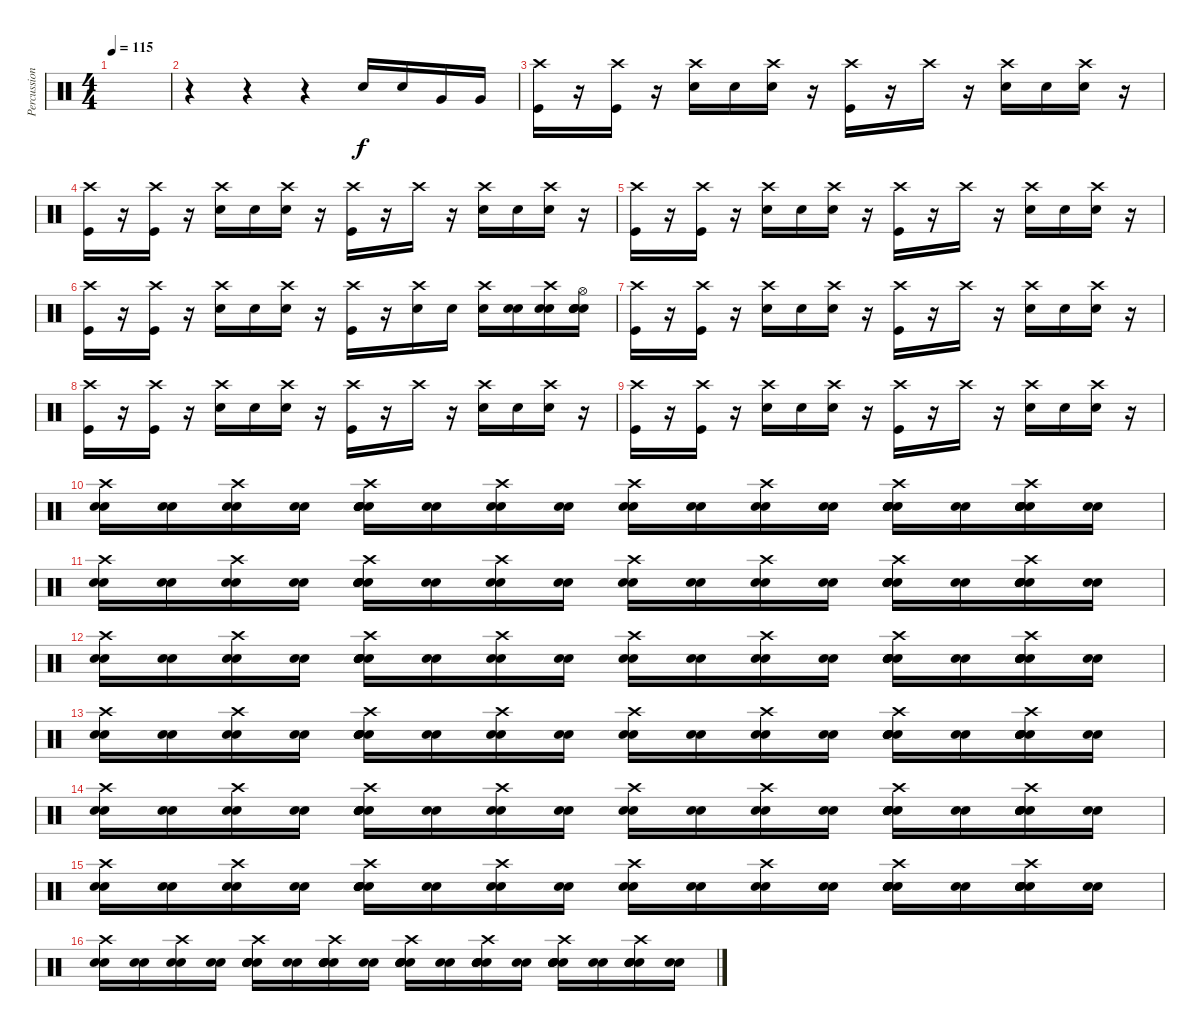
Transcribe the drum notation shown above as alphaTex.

\track ("Percussions" "Percussion") {instrument percussion}
\staff {score}
\articulation defaults
\ts (4 4)
\tempo 115
\clef neutral
\ks c
|
r.4 r.4 r.4 "Electric Snare (hit)".16 "Snare (hit) 2".16 "Very Low Tom (hit)".16 "Very Low Tom (hit)".16 |
("Crash high (hit)" "Kick (hit)").16 r.16 ("Crash high (hit)" "Kick (hit)").16 r.16 ("Crash high (hit)" "Electric Snare (hit)").16 "Snare (hit) 2".16 ("Crash high (hit)" "Electric Snare (hit)").16 r.16 ("Crash high (hit)" "Kick (hit)").16 r.16 "Crash high (hit)".16 r.16 ("Crash high (hit)" "Electric Snare (hit)").16 "Snare (hit) 2".16 ("Crash high (hit)" "Electric Snare (hit)").16 r.16 |
("Crash high (hit)" "Kick (hit)").16 r.16 ("Crash high (hit)" "Kick (hit)").16 r.16 ("Crash high (hit)" "Electric Snare (hit)").16 "Snare (hit) 2".16 ("Crash high (hit)" "Electric Snare (hit)").16 r.16 ("Crash high (hit)" "Kick (hit)").16 r.16 "Crash high (hit)".16 r.16 ("Crash high (hit)" "Electric Snare (hit)").16 "Snare (hit) 2".16 ("Crash high (hit)" "Electric Snare (hit)").16 r.16 |
("Crash high (hit)" "Kick (hit)").16 r.16 ("Crash high (hit)" "Kick (hit)").16 r.16 ("Crash high (hit)" "Electric Snare (hit)").16 "Snare (hit) 2".16 ("Crash high (hit)" "Electric Snare (hit)").16 r.16 ("Crash high (hit)" "Kick (hit)").16 r.16 "Crash high (hit)".16 r.16 ("Crash high (hit)" "Electric Snare (hit)").16 "Snare (hit) 2".16 ("Crash high (hit)" "Electric Snare (hit)").16 r.16 |
("Crash high (hit)" "Kick (hit)").16 r.16 ("Crash high (hit)" "Kick (hit)").16 r.16 ("Crash high (hit)" "Electric Snare (hit)").16 "Snare (hit) 2".16 ("Crash high (hit)" "Electric Snare (hit)").16 r.16 ("Crash high (hit)" "Kick (hit)").16 r.16 ("Crash high (hit)" "Electric Snare (hit)").16 "Electric Snare (hit)".16 ("Crash high (hit)" "Electric Snare (hit)").16 ("Electric Snare (hit)" "Snare (hit) 2").16 ("Crash high (hit)" "Electric Snare (hit)" "Snare (hit) 2").16 ("Hi-Hat (open)" "Electric Snare (hit)" "Electric Snare (hit)" "Snare (hit) 2" "Snare (hit) 2").16 |
("Crash high (hit)" "Kick (hit)").16 r.16 ("Crash high (hit)" "Kick (hit)").16 r.16 ("Crash high (hit)" "Electric Snare (hit)").16 "Snare (hit) 2".16 ("Crash high (hit)" "Electric Snare (hit)").16 r.16 ("Crash high (hit)" "Kick (hit)").16 r.16 "Crash high (hit)".16 r.16 ("Crash high (hit)" "Electric Snare (hit)").16 "Snare (hit) 2".16 ("Crash high (hit)" "Electric Snare (hit)").16 r.16 |
("Crash high (hit)" "Kick (hit)").16 r.16 ("Crash high (hit)" "Kick (hit)").16 r.16 ("Crash high (hit)" "Electric Snare (hit)").16 "Snare (hit) 2".16 ("Crash high (hit)" "Electric Snare (hit)").16 r.16 ("Crash high (hit)" "Kick (hit)").16 r.16 "Crash high (hit)".16 r.16 ("Crash high (hit)" "Electric Snare (hit)").16 "Snare (hit) 2".16 ("Crash high (hit)" "Electric Snare (hit)").16 r.16 |
("Crash high (hit)" "Kick (hit)").16 r.16 ("Crash high (hit)" "Kick (hit)").16 r.16 ("Crash high (hit)" "Electric Snare (hit)").16 "Snare (hit) 2".16 ("Crash high (hit)" "Electric Snare (hit)").16 r.16 ("Crash high (hit)" "Kick (hit)").16 r.16 "Crash high (hit)".16 r.16 ("Crash high (hit)" "Electric Snare (hit)").16 "Snare (hit) 2".16 ("Crash high (hit)" "Electric Snare (hit)").16 r.16 |
("Crash high (hit)" "Snare (hit) 2" "Snare (hit) 2").16 ("Snare (hit) 2" "Snare (hit) 2").16 ("Crash high (hit)" "Snare (hit) 2" "Snare (hit) 2").16 ("Snare (hit) 2" "Snare (hit) 2").16 ("Crash high (hit)" "Electric Snare (hit)" "Electric Snare (hit)" "Electric Snare (hit)" "Electric Snare (hit)" "Electric Snare (hit)").16 ("Snare (hit) 2" "Snare (hit) 2").16 ("Crash high (hit)" "Snare (hit) 2" "Snare (hit) 2").16 ("Snare (hit) 2" "Snare (hit) 2").16 ("Crash high (hit)" "Snare (hit) 2" "Snare (hit) 2").16 ("Snare (hit) 2" "Snare (hit) 2").16 ("Crash high (hit)" "Snare (hit) 2" "Snare (hit) 2").16 ("Snare (hit) 2" "Snare (hit) 2").16 ("Crash high (hit)" "Electric Snare (hit)" "Electric Snare (hit)" "Electric Snare (hit)" "Electric Snare (hit)" "Electric Snare (hit)").16 ("Snare (hit) 2" "Snare (hit) 2").16 ("Crash high (hit)" "Electric Snare (hit)" "Electric Snare (hit)" "Electric Snare (hit)" "Electric Snare (hit)" "Electric Snare (hit)").16 ("Snare (hit) 2" "Snare (hit) 2").16 |
("Crash high (hit)" "Snare (hit) 2" "Snare (hit) 2").16 ("Snare (hit) 2" "Snare (hit) 2").16 ("Crash high (hit)" "Snare (hit) 2" "Snare (hit) 2").16 ("Snare (hit) 2" "Snare (hit) 2").16 ("Crash high (hit)" "Electric Snare (hit)" "Electric Snare (hit)" "Electric Snare (hit)" "Electric Snare (hit)" "Electric Snare (hit)").16 ("Snare (hit) 2" "Snare (hit) 2").16 ("Crash high (hit)" "Snare (hit) 2" "Snare (hit) 2").16 ("Snare (hit) 2" "Snare (hit) 2").16 ("Crash high (hit)" "Snare (hit) 2" "Snare (hit) 2").16 ("Snare (hit) 2" "Snare (hit) 2").16 ("Crash high (hit)" "Snare (hit) 2" "Snare (hit) 2").16 ("Snare (hit) 2" "Snare (hit) 2").16 ("Crash high (hit)" "Electric Snare (hit)" "Electric Snare (hit)" "Electric Snare (hit)" "Electric Snare (hit)" "Electric Snare (hit)").16 ("Snare (hit) 2" "Snare (hit) 2").16 ("Crash high (hit)" "Electric Snare (hit)" "Electric Snare (hit)" "Electric Snare (hit)" "Electric Snare (hit)" "Electric Snare (hit)").16 ("Snare (hit) 2" "Snare (hit) 2").16 |
("Crash high (hit)" "Snare (hit) 2" "Snare (hit) 2").16 ("Snare (hit) 2" "Snare (hit) 2").16 ("Crash high (hit)" "Snare (hit) 2" "Snare (hit) 2").16 ("Snare (hit) 2" "Snare (hit) 2").16 ("Crash high (hit)" "Electric Snare (hit)" "Electric Snare (hit)" "Electric Snare (hit)" "Electric Snare (hit)" "Electric Snare (hit)").16 ("Snare (hit) 2" "Snare (hit) 2").16 ("Crash high (hit)" "Snare (hit) 2" "Snare (hit) 2").16 ("Snare (hit) 2" "Snare (hit) 2").16 ("Crash high (hit)" "Snare (hit) 2" "Snare (hit) 2").16 ("Snare (hit) 2" "Snare (hit) 2").16 ("Crash high (hit)" "Snare (hit) 2" "Snare (hit) 2").16 ("Snare (hit) 2" "Snare (hit) 2").16 ("Crash high (hit)" "Electric Snare (hit)" "Electric Snare (hit)" "Electric Snare (hit)" "Electric Snare (hit)" "Electric Snare (hit)").16 ("Snare (hit) 2" "Snare (hit) 2").16 ("Crash high (hit)" "Electric Snare (hit)" "Electric Snare (hit)" "Electric Snare (hit)" "Electric Snare (hit)" "Electric Snare (hit)").16 ("Snare (hit) 2" "Snare (hit) 2").16 |
("Crash high (hit)" "Snare (hit) 2" "Snare (hit) 2").16 ("Snare (hit) 2" "Snare (hit) 2").16 ("Crash high (hit)" "Snare (hit) 2" "Snare (hit) 2").16 ("Snare (hit) 2" "Snare (hit) 2").16 ("Crash high (hit)" "Electric Snare (hit)" "Electric Snare (hit)" "Electric Snare (hit)" "Electric Snare (hit)" "Electric Snare (hit)").16 ("Snare (hit) 2" "Snare (hit) 2").16 ("Crash high (hit)" "Snare (hit) 2" "Snare (hit) 2").16 ("Snare (hit) 2" "Snare (hit) 2").16 ("Crash high (hit)" "Snare (hit) 2" "Snare (hit) 2").16 ("Snare (hit) 2" "Snare (hit) 2").16 ("Crash high (hit)" "Snare (hit) 2" "Snare (hit) 2").16 ("Snare (hit) 2" "Snare (hit) 2").16 ("Crash high (hit)" "Electric Snare (hit)" "Electric Snare (hit)" "Electric Snare (hit)" "Electric Snare (hit)" "Electric Snare (hit)").16 ("Snare (hit) 2" "Snare (hit) 2").16 ("Crash high (hit)" "Electric Snare (hit)" "Electric Snare (hit)" "Electric Snare (hit)" "Electric Snare (hit)" "Electric Snare (hit)").16 ("Snare (hit) 2" "Snare (hit) 2").16 |
("Crash high (hit)" "Snare (hit) 2" "Snare (hit) 2").16 ("Snare (hit) 2" "Snare (hit) 2").16 ("Crash high (hit)" "Snare (hit) 2" "Snare (hit) 2").16 ("Snare (hit) 2" "Snare (hit) 2").16 ("Crash high (hit)" "Electric Snare (hit)" "Electric Snare (hit)" "Electric Snare (hit)" "Electric Snare (hit)" "Electric Snare (hit)").16 ("Snare (hit) 2" "Snare (hit) 2").16 ("Crash high (hit)" "Snare (hit) 2" "Snare (hit) 2").16 ("Snare (hit) 2" "Snare (hit) 2").16 ("Crash high (hit)" "Snare (hit) 2" "Snare (hit) 2").16 ("Snare (hit) 2" "Snare (hit) 2").16 ("Crash high (hit)" "Snare (hit) 2" "Snare (hit) 2").16 ("Snare (hit) 2" "Snare (hit) 2").16 ("Crash high (hit)" "Electric Snare (hit)" "Electric Snare (hit)" "Electric Snare (hit)" "Electric Snare (hit)" "Electric Snare (hit)").16 ("Snare (hit) 2" "Snare (hit) 2").16 ("Crash high (hit)" "Electric Snare (hit)" "Electric Snare (hit)" "Electric Snare (hit)" "Electric Snare (hit)" "Electric Snare (hit)").16 ("Snare (hit) 2" "Snare (hit) 2").16 |
("Crash high (hit)" "Snare (hit) 2" "Snare (hit) 2").16 ("Snare (hit) 2" "Snare (hit) 2").16 ("Crash high (hit)" "Snare (hit) 2" "Snare (hit) 2").16 ("Snare (hit) 2" "Snare (hit) 2").16 ("Crash high (hit)" "Electric Snare (hit)" "Electric Snare (hit)" "Electric Snare (hit)" "Electric Snare (hit)" "Electric Snare (hit)").16 ("Snare (hit) 2" "Snare (hit) 2").16 ("Crash high (hit)" "Snare (hit) 2" "Snare (hit) 2").16 ("Snare (hit) 2" "Snare (hit) 2").16 ("Crash high (hit)" "Snare (hit) 2" "Snare (hit) 2").16 ("Snare (hit) 2" "Snare (hit) 2").16 ("Crash high (hit)" "Snare (hit) 2" "Snare (hit) 2").16 ("Snare (hit) 2" "Snare (hit) 2").16 ("Crash high (hit)" "Electric Snare (hit)" "Electric Snare (hit)" "Electric Snare (hit)" "Electric Snare (hit)" "Electric Snare (hit)").16 ("Snare (hit) 2" "Snare (hit) 2").16 ("Crash high (hit)" "Electric Snare (hit)" "Electric Snare (hit)" "Electric Snare (hit)" "Electric Snare (hit)" "Electric Snare (hit)").16 ("Snare (hit) 2" "Snare (hit) 2").16 |
("Crash high (hit)" "Snare (hit) 2" "Snare (hit) 2").16 ("Snare (hit) 2" "Snare (hit) 2").16 ("Crash high (hit)" "Snare (hit) 2" "Snare (hit) 2").16 ("Snare (hit) 2" "Snare (hit) 2").16 ("Crash high (hit)" "Electric Snare (hit)" "Electric Snare (hit)" "Electric Snare (hit)" "Electric Snare (hit)" "Electric Snare (hit)").16 ("Snare (hit) 2" "Snare (hit) 2").16 ("Crash high (hit)" "Electric Snare (hit)" "Electric Snare (hit)" "Electric Snare (hit)" "Electric Snare (hit)" "Electric Snare (hit)").16 ("Snare (hit) 2" "Snare (hit) 2").16 ("Crash high (hit)" "Electric Snare (hit)" "Electric Snare (hit)" "Electric Snare (hit)" "Electric Snare (hit)" "Electric Snare (hit)").16 ("Snare (hit) 2" "Snare (hit) 2").16 ("Crash high (hit)" "Electric Snare (hit)" "Electric Snare (hit)" "Electric Snare (hit)" "Electric Snare (hit)" "Electric Snare (hit)").16 ("Snare (hit) 2" "Snare (hit) 2").16 ("Crash high (hit)" "Electric Snare (hit)" "Electric Snare (hit)" "Electric Snare (hit)" "Electric Snare (hit)" "Electric Snare (hit)").16 ("Snare (hit) 2" "Snare (hit) 2").16 ("Crash high (hit)" "Electric Snare (hit)" "Electric Snare (hit)" "Electric Snare (hit)" "Electric Snare (hit)" "Electric Snare (hit)").16 ("Snare (hit) 2" "Snare (hit) 2").16
